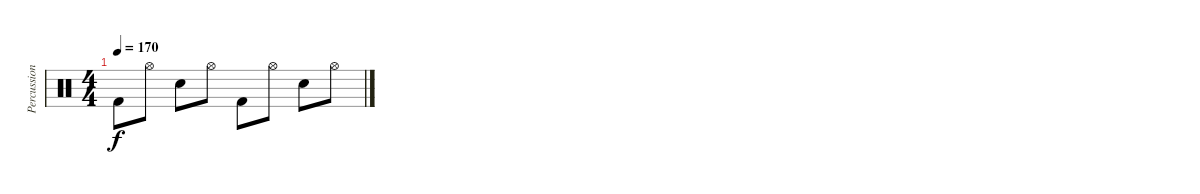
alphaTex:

\track ("Percussion" "Percussion") {instrument percussion}
\staff {score}
\articulation defaults
\ts (4 4)
\tempo 170
\clef neutral
\ks c "Kick (hit) 2".8{dy f} "Hi-Hat (open)".8 "Snare (hit) 2".8 "Hi-Hat (open)".8 "Kick (hit) 2".8 "Hi-Hat (open)".8 "Snare (hit) 2".8 "Hi-Hat (open)".8
